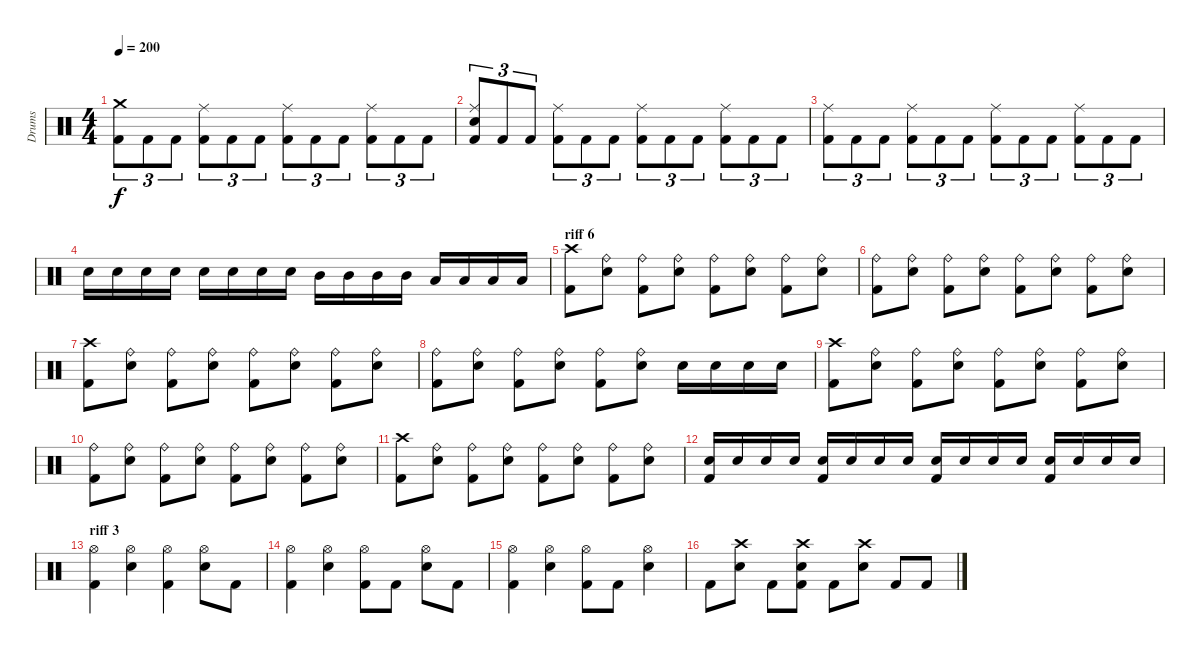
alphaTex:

\track ("Drums" "Drums") {instrument percussion}
\staff {score}
\articulation defaults
\ts (4 4)
\tempo 200
\clef neutral
\ks c
("Crash medium (hit)" "Kick (hit) 2").8{tu (3 2) dy f} "Kick (hit) 2".8{tu (3 2)} "Kick (hit) 2".8{tu (3 2)} ("Ride (middle)" "Kick (hit) 2").8{tu (3 2)} "Kick (hit) 2".8{tu (3 2)} "Kick (hit) 2".8{tu (3 2)} ("Ride (middle)" "Kick (hit) 2").8{tu (3 2)} "Kick (hit) 2".8{tu (3 2)} "Kick (hit) 2".8{tu (3 2)} ("Ride (middle)" "Kick (hit) 2").8{tu (3 2)} "Kick (hit) 2".8{tu (3 2)} "Kick (hit) 2".8{tu (3 2)} |
("Ride (middle)" "Electric Snare (hit)" "Kick (hit) 2").8{tu (3 2)} "Kick (hit) 2".8{tu (3 2)} "Kick (hit) 2".8{tu (3 2)} ("Ride (middle)" "Kick (hit) 2").8{tu (3 2)} "Kick (hit) 2".8{tu (3 2)} "Kick (hit) 2".8{tu (3 2)} ("Ride (middle)" "Kick (hit) 2").8{tu (3 2)} "Kick (hit) 2".8{tu (3 2)} "Kick (hit) 2".8{tu (3 2)} ("Ride (middle)" "Kick (hit) 2").8{tu (3 2)} "Kick (hit) 2".8{tu (3 2)} "Kick (hit) 2".8{tu (3 2)} |
("Ride (middle)" "Kick (hit) 2").8{tu (3 2)} "Kick (hit) 2".8{tu (3 2)} "Kick (hit) 2".8{tu (3 2)} ("Ride (middle)" "Kick (hit) 2").8{tu (3 2)} "Kick (hit) 2".8{tu (3 2)} "Kick (hit) 2".8{tu (3 2)} ("Ride (middle)" "Kick (hit) 2").8{tu (3 2)} "Kick (hit) 2".8{tu (3 2)} "Kick (hit) 2".8{tu (3 2)} ("Ride (middle)" "Kick (hit) 2").8{tu (3 2)} "Kick (hit) 2".8{tu (3 2)} "Kick (hit) 2".8{tu (3 2)} |
"Electric Snare (hit)".16 "Electric Snare (hit)".16 "Electric Snare (hit)".16 "Electric Snare (hit)".16 "Electric Snare (hit)".16 "Electric Snare (hit)".16 "Electric Snare (hit)".16 "Electric Snare (hit)".16 "Mid Tom (hit)".16 "Mid Tom (hit)".16 "Mid Tom (hit)".16 "Mid Tom (hit)".16 "Low Tom (hit)".16 "Low Tom (hit)".16 "Low Tom (hit)".16 "Low Tom (hit)".16 |
\section ("" "riff 6")
("Crash high (hit)" "Kick (hit) 2").8 ("Ride (bell)" "Electric Snare (hit)").8 ("Ride (bell)" "Kick (hit) 2").8 ("Ride (bell)" "Electric Snare (hit)").8 ("Ride (bell)" "Kick (hit) 2").8 ("Ride (bell)" "Electric Snare (hit)").8 ("Ride (bell)" "Kick (hit) 2").8 ("Ride (bell)" "Electric Snare (hit)").8 |
("Ride (bell)" "Kick (hit) 2").8 ("Ride (bell)" "Electric Snare (hit)").8 ("Ride (bell)" "Kick (hit) 2").8 ("Ride (bell)" "Electric Snare (hit)").8 ("Ride (bell)" "Kick (hit) 2").8 ("Ride (bell)" "Electric Snare (hit)").8 ("Ride (bell)" "Kick (hit) 2").8 ("Ride (bell)" "Electric Snare (hit)").8 |
("Crash high (hit)" "Kick (hit) 2").8 ("Ride (bell)" "Electric Snare (hit)").8 ("Ride (bell)" "Kick (hit) 2").8 ("Ride (bell)" "Electric Snare (hit)").8 ("Ride (bell)" "Kick (hit) 2").8 ("Ride (bell)" "Electric Snare (hit)").8 ("Ride (bell)" "Kick (hit) 2").8 ("Ride (bell)" "Electric Snare (hit)").8 |
("Ride (bell)" "Kick (hit) 2").8 ("Ride (bell)" "Electric Snare (hit)").8 ("Ride (bell)" "Kick (hit) 2").8 ("Ride (bell)" "Electric Snare (hit)").8 ("Ride (bell)" "Kick (hit) 2").8 ("Ride (bell)" "Electric Snare (hit)").8 "Electric Snare (hit)".16 "Electric Snare (hit)".16 "Electric Snare (hit)".16 "Electric Snare (hit)".16 |
("Crash high (hit)" "Kick (hit) 2").8 ("Ride (bell)" "Electric Snare (hit)").8 ("Ride (bell)" "Kick (hit) 2").8 ("Ride (bell)" "Electric Snare (hit)").8 ("Ride (bell)" "Kick (hit) 2").8 ("Ride (bell)" "Electric Snare (hit)").8 ("Ride (bell)" "Kick (hit) 2").8 ("Ride (bell)" "Electric Snare (hit)").8 |
("Ride (bell)" "Kick (hit) 2").8 ("Ride (bell)" "Electric Snare (hit)").8 ("Ride (bell)" "Kick (hit) 2").8 ("Ride (bell)" "Electric Snare (hit)").8 ("Ride (bell)" "Kick (hit) 2").8 ("Ride (bell)" "Electric Snare (hit)").8 ("Ride (bell)" "Kick (hit) 2").8 ("Ride (bell)" "Electric Snare (hit)").8 |
("Crash high (hit)" "Kick (hit) 2").8 ("Ride (bell)" "Electric Snare (hit)").8 ("Ride (bell)" "Kick (hit) 2").8 ("Ride (bell)" "Electric Snare (hit)").8 ("Ride (bell)" "Kick (hit) 2").8 ("Ride (bell)" "Electric Snare (hit)").8 ("Ride (bell)" "Kick (hit) 2").8 ("Ride (bell)" "Electric Snare (hit)").8 |
("Electric Snare (hit)" "Kick (hit) 2").16 "Electric Snare (hit)".16 "Electric Snare (hit)".16 "Electric Snare (hit)".16 ("Electric Snare (hit)" "Kick (hit) 2").16 "Electric Snare (hit)".16 "Electric Snare (hit)".16 "Electric Snare (hit)".16 ("Electric Snare (hit)" "Kick (hit) 2").16 "Electric Snare (hit)".16 "Electric Snare (hit)".16 "Electric Snare (hit)".16 ("Electric Snare (hit)" "Kick (hit) 2").16 "Electric Snare (hit)".16 "Electric Snare (hit)".16 "Electric Snare (hit)".16 |
\section ("" "riff 3")
("Hi-Hat (open)" "Kick (hit) 2").4 ("Hi-Hat (open)" "Electric Snare (hit)").4 ("Hi-Hat (open)" "Kick (hit) 2").4 ("Hi-Hat (open)" "Electric Snare (hit)").8 "Kick (hit) 2".8 |
("Hi-Hat (open)" "Kick (hit) 2").4 ("Hi-Hat (open)" "Electric Snare (hit)").4 ("Hi-Hat (open)" "Kick (hit) 2").8 "Kick (hit) 2".8 ("Hi-Hat (open)" "Electric Snare (hit)").8 "Kick (hit) 2".8 |
("Hi-Hat (open)" "Kick (hit) 2").4 ("Hi-Hat (open)" "Electric Snare (hit)").4 ("Hi-Hat (open)" "Kick (hit) 2").8 "Kick (hit) 2".8 ("Hi-Hat (open)" "Electric Snare (hit)").4 |
"Kick (hit) 2".8 ("Crash high (hit)" "Electric Snare (hit)").8 "Kick (hit) 2".8 ("Crash high (hit)" "Electric Snare (hit)" "Kick (hit) 2").8 "Kick (hit) 2".8 ("Crash high (hit)" "Electric Snare (hit)").8 "Kick (hit) 2".8 "Kick (hit) 2".8
